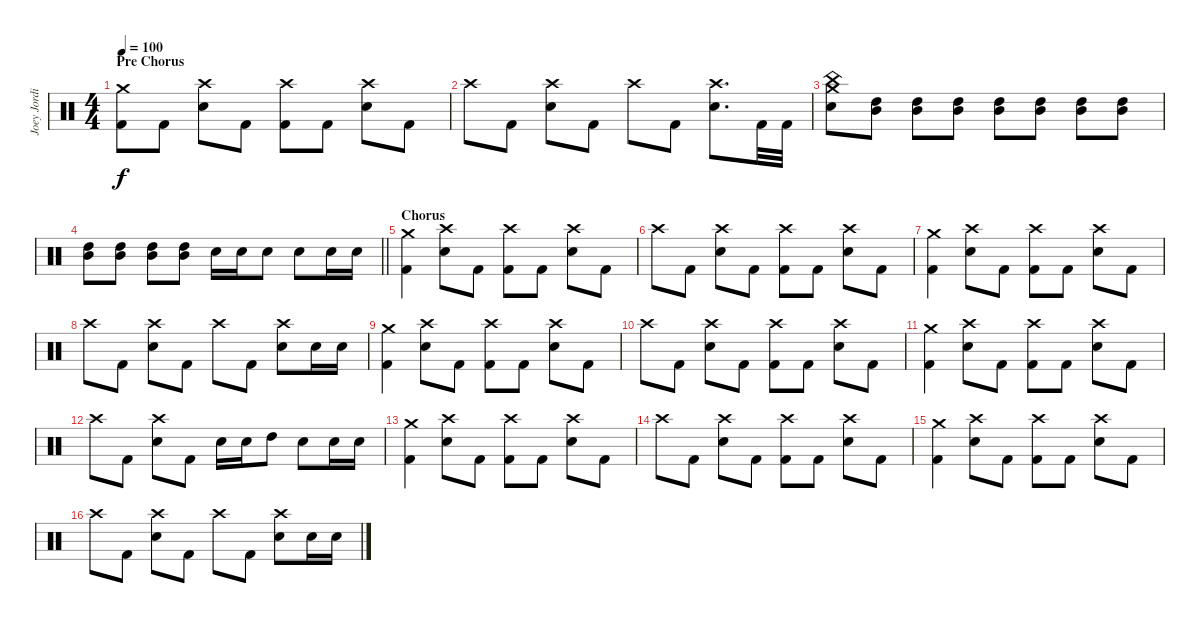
\track ("Joey Jordison" "Joey Jordi") {instrument percussion}
\staff {score}
\articulation defaults
\ts (4 4)
\section ("" "Pre Chorus")
\tempo 100
\clef neutral
\ks c
("Crash medium (hit)" "Kick (hit) 2").8{dy f} "Kick (hit) 2".8 ("Crash high (hit)" "Electric Snare (hit)").8 "Kick (hit) 2".8 ("Crash high (hit)" "Kick (hit) 2").8 "Kick (hit) 2".8 ("Crash high (hit)" "Electric Snare (hit)").8 "Kick (hit) 2".8 |
"Crash high (hit)".8 "Kick (hit) 2".8 ("Crash high (hit)" "Electric Snare (hit)").8 "Kick (hit) 2".8 "Crash high (hit)".8 "Kick (hit) 2".8 ("Crash high (hit)" "Electric Snare (hit)").8{d} "Kick (hit) 2".32 "Kick (hit) 2".32 |
("China (hit)" "Crash medium (hit)" "Electric Snare (hit)").8 ("High Tom (hit)" "Mid Tom (hit)").8 ("High Tom (hit)" "Mid Tom (hit)").8 ("High Tom (hit)" "Mid Tom (hit)").8 ("High Tom (hit)" "Mid Tom (hit)").8 ("High Tom (hit)" "Mid Tom (hit)").8 ("High Tom (hit)" "Mid Tom (hit)").8 ("High Tom (hit)" "Mid Tom (hit)").8 |
\barLineRight lightlight
("High Tom (hit)" "Mid Tom (hit)").8 ("High Tom (hit)" "Mid Tom (hit)").8 ("High Tom (hit)" "Mid Tom (hit)").8 ("High Tom (hit)" "Mid Tom (hit)").8 "Electric Snare (hit)".16 "Electric Snare (hit)".16 "Electric Snare (hit)".8 "Electric Snare (hit)".8 "Electric Snare (hit)".16 "Electric Snare (hit)".16 |
\section ("" "Chorus")
("Crash medium (hit)" "Kick (hit) 2").4 ("Crash high (hit)" "Electric Snare (hit)").8 "Kick (hit) 2".8 ("Crash high (hit)" "Kick (hit) 2").8 "Kick (hit) 2".8 ("Crash high (hit)" "Electric Snare (hit)").8 "Kick (hit) 2".8 |
"Crash high (hit)".8 "Kick (hit) 2".8 ("Crash high (hit)" "Electric Snare (hit)").8 "Kick (hit) 2".8 ("Crash high (hit)" "Kick (hit) 2").8 "Kick (hit) 2".8 ("Crash high (hit)" "Electric Snare (hit)").8 "Kick (hit) 2".8 |
("Crash medium (hit)" "Kick (hit) 2").4 ("Crash high (hit)" "Electric Snare (hit)").8 "Kick (hit) 2".8 ("Crash high (hit)" "Kick (hit) 2").8 "Kick (hit) 2".8 ("Crash high (hit)" "Electric Snare (hit)").8 "Kick (hit) 2".8 |
"Crash high (hit)".8 "Kick (hit) 2".8 ("Crash high (hit)" "Electric Snare (hit)").8 "Kick (hit) 2".8 "Crash high (hit)".8 "Kick (hit) 2".8 ("Crash high (hit)" "Electric Snare (hit)").8 "Electric Snare (hit)".16 "Electric Snare (hit)".16 |
("Crash medium (hit)" "Kick (hit) 2").4 ("Crash high (hit)" "Electric Snare (hit)").8 "Kick (hit) 2".8 ("Crash high (hit)" "Kick (hit) 2").8 "Kick (hit) 2".8 ("Crash high (hit)" "Electric Snare (hit)").8 "Kick (hit) 2".8 |
"Crash high (hit)".8 "Kick (hit) 2".8 ("Crash high (hit)" "Electric Snare (hit)").8 "Kick (hit) 2".8 ("Crash high (hit)" "Kick (hit) 2").8 "Kick (hit) 2".8 ("Crash high (hit)" "Electric Snare (hit)").8 "Kick (hit) 2".8 |
("Crash medium (hit)" "Kick (hit) 2").4 ("Crash high (hit)" "Electric Snare (hit)").8 "Kick (hit) 2".8 ("Crash high (hit)" "Kick (hit) 2").8 "Kick (hit) 2".8 ("Crash high (hit)" "Electric Snare (hit)").8 "Kick (hit) 2".8 |
"Crash high (hit)".8 "Kick (hit) 2".8 ("Crash high (hit)" "Electric Snare (hit)").8 "Kick (hit) 2".8 "Electric Snare (hit)".16 "Electric Snare (hit)".16 "High Tom (hit)".8 "Electric Snare (hit)".8 "Electric Snare (hit)".16 "Electric Snare (hit)".16 |
("Crash medium (hit)" "Kick (hit) 2").4 ("Crash high (hit)" "Electric Snare (hit)").8 "Kick (hit) 2".8 ("Crash high (hit)" "Kick (hit) 2").8 "Kick (hit) 2".8 ("Crash high (hit)" "Electric Snare (hit)").8 "Kick (hit) 2".8 |
"Crash high (hit)".8 "Kick (hit) 2".8 ("Crash high (hit)" "Electric Snare (hit)").8 "Kick (hit) 2".8 ("Crash high (hit)" "Kick (hit) 2").8 "Kick (hit) 2".8 ("Crash high (hit)" "Electric Snare (hit)").8 "Kick (hit) 2".8 |
("Crash medium (hit)" "Kick (hit) 2").4 ("Crash high (hit)" "Electric Snare (hit)").8 "Kick (hit) 2".8 ("Crash high (hit)" "Kick (hit) 2").8 "Kick (hit) 2".8 ("Crash high (hit)" "Electric Snare (hit)").8 "Kick (hit) 2".8 |
"Crash high (hit)".8 "Kick (hit) 2".8 ("Crash high (hit)" "Electric Snare (hit)").8 "Kick (hit) 2".8 "Crash high (hit)".8 "Kick (hit) 2".8 ("Crash high (hit)" "Electric Snare (hit)").8 "Electric Snare (hit)".16 "Electric Snare (hit)".16
